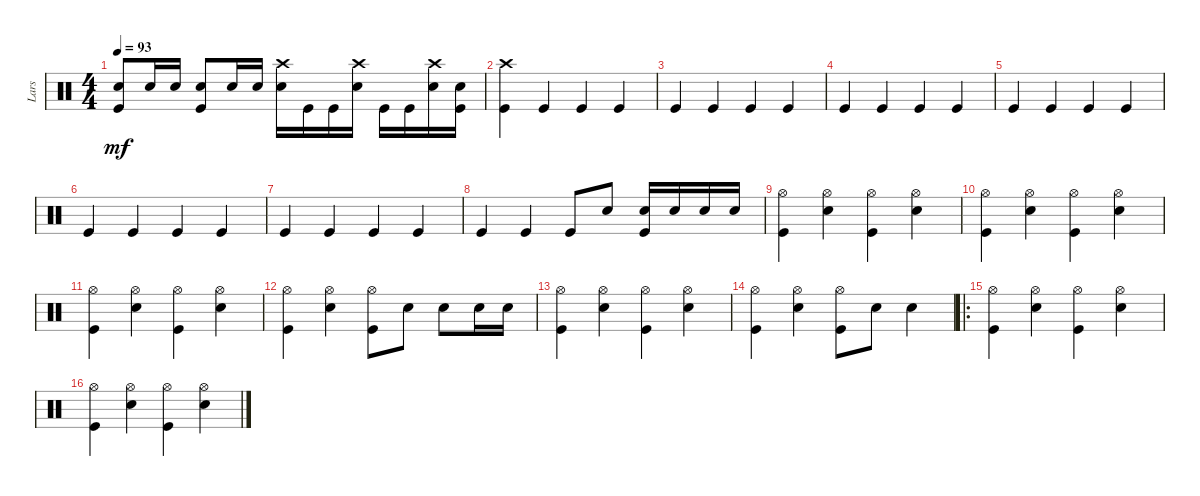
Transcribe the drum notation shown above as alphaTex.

\track ("Lars" "Lars") {instrument percussion}
\staff {score}
\articulation defaults
\ts (4 4)
\tempo 93
\clef neutral
\ks c
("Snare (hit) 2" "Kick (hit)").8{dy mf} "Snare (hit) 2".16 "Snare (hit) 2".16 ("Snare (hit) 2" "Kick (hit)").8 "Snare (hit) 2".16 "Snare (hit) 2".16 ("Crash high (hit)" "Snare (hit) 2").16 "Kick (hit)".16 "Kick (hit)".16 ("Crash high (hit)" "Snare (hit) 2").16 "Kick (hit)".16 "Kick (hit)".16 ("Crash high (hit)" "Snare (hit) 2").16 ("Snare (hit) 2" "Kick (hit)").16 |
("Crash high (hit)" "Kick (hit)").4 "Kick (hit)".4 "Kick (hit)".4 "Kick (hit)".4 |
"Kick (hit)".4 "Kick (hit)".4 "Kick (hit)".4 "Kick (hit)".4 |
"Kick (hit)".4 "Kick (hit)".4 "Kick (hit)".4 "Kick (hit)".4 |
"Kick (hit)".4 "Kick (hit)".4 "Kick (hit)".4 "Kick (hit)".4 |
"Kick (hit)".4 "Kick (hit)".4 "Kick (hit)".4 "Kick (hit)".4 |
"Kick (hit)".4 "Kick (hit)".4 "Kick (hit)".4 "Kick (hit)".4 |
"Kick (hit)".4 "Kick (hit)".4 "Kick (hit)".8 "Snare (hit) 2".8 ("Snare (hit) 2" "Kick (hit)").16 "Snare (hit) 2".16 "Snare (hit) 2".16 "Snare (hit) 2".16 |
("Hi-Hat (open)" "Kick (hit)").4 ("Hi-Hat (open)" "Snare (hit) 2").4 ("Hi-Hat (open)" "Kick (hit)").4 ("Hi-Hat (open)" "Snare (hit) 2").4 |
("Hi-Hat (open)" "Kick (hit)").4 ("Hi-Hat (open)" "Snare (hit) 2").4 ("Hi-Hat (open)" "Kick (hit)").4 ("Hi-Hat (open)" "Snare (hit) 2").4 |
("Hi-Hat (open)" "Kick (hit)").4 ("Hi-Hat (open)" "Snare (hit) 2").4 ("Hi-Hat (open)" "Kick (hit)").4 ("Hi-Hat (open)" "Snare (hit) 2").4 |
("Hi-Hat (open)" "Kick (hit)").4 ("Hi-Hat (open)" "Snare (hit) 2").4 ("Hi-Hat (open)" "Kick (hit)").8 "Snare (hit) 2".8 "Snare (hit) 2".8 "Snare (hit) 2".16 "Snare (hit) 2".16 |
("Hi-Hat (open)" "Kick (hit)").4 ("Hi-Hat (open)" "Snare (hit) 2").4 ("Hi-Hat (open)" "Kick (hit)").4 ("Hi-Hat (open)" "Snare (hit) 2").4 |
("Hi-Hat (open)" "Kick (hit)").4 ("Hi-Hat (open)" "Snare (hit) 2").4 ("Hi-Hat (open)" "Kick (hit)").8 "Snare (hit) 2".8 "Snare (hit) 2".4 |
\ro
("Hi-Hat (open)" "Kick (hit)").4 ("Hi-Hat (open)" "Snare (hit) 2").4 ("Hi-Hat (open)" "Kick (hit)").4 ("Hi-Hat (open)" "Snare (hit) 2").4 |
("Hi-Hat (open)" "Kick (hit)").4 ("Hi-Hat (open)" "Snare (hit) 2").4 ("Hi-Hat (open)" "Kick (hit)").4 ("Hi-Hat (open)" "Snare (hit) 2").4
